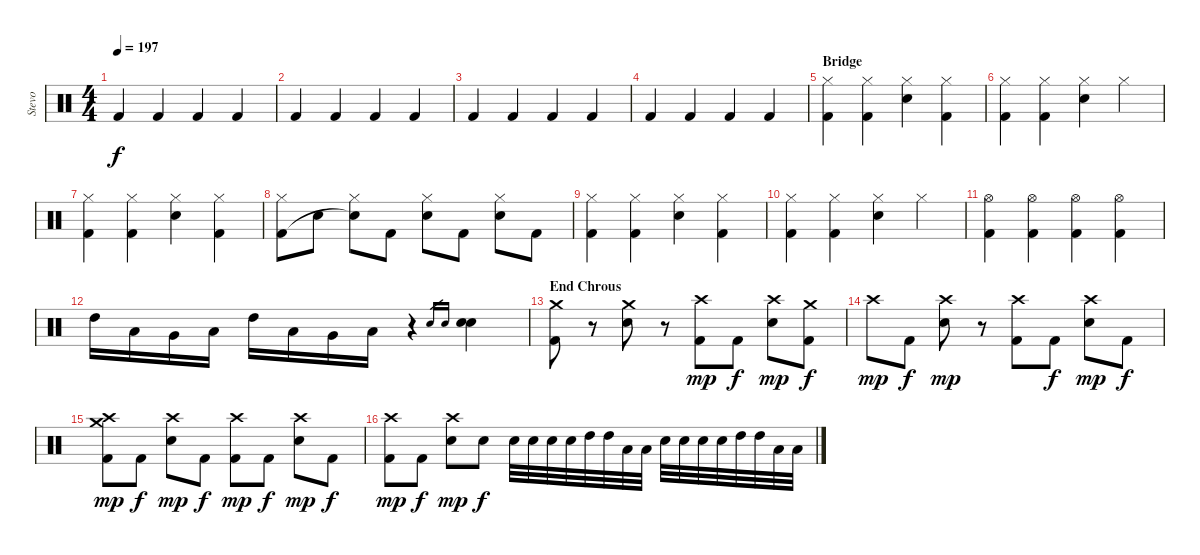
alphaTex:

\track ("Stevo" "Stevo") {instrument percussion}
\staff {score}
\articulation defaults
\ts (4 4)
\tempo 197
\clef neutral
\ks c "Kick (hit) 2".4{dy f} "Kick (hit) 2".4 "Kick (hit) 2".4 "Kick (hit) 2".4
|
"Kick (hit) 2".4 "Kick (hit) 2".4 "Kick (hit) 2".4 "Kick (hit) 2".4 |
"Kick (hit) 2".4 "Kick (hit) 2".4 "Kick (hit) 2".4 "Kick (hit) 2".4 |
"Kick (hit) 2".4 "Kick (hit) 2".4 "Kick (hit) 2".4 "Kick (hit) 2".4 |
\section ("" "Bridge")
("Hi-Hat (closed)" "Kick (hit) 2").4 ("Hi-Hat (closed)" "Kick (hit) 2").4 ("Hi-Hat (closed)" "Electric Snare (hit)").4 ("Hi-Hat (closed)" "Kick (hit) 2").4 |
("Hi-Hat (closed)" "Kick (hit) 2").4 ("Hi-Hat (closed)" "Kick (hit) 2").4 ("Hi-Hat (closed)" "Electric Snare (hit)").4 "Hi-Hat (closed)".4 |
("Hi-Hat (closed)" "Kick (hit) 2").4 ("Hi-Hat (closed)" "Kick (hit) 2").4 ("Hi-Hat (closed)" "Electric Snare (hit)").4 ("Hi-Hat (closed)" "Kick (hit) 2").4 |
("Hi-Hat (closed)" "Kick (hit) 2").8 "Electric Snare (hit)".8 ("Hi-Hat (closed)" "Electric Snare (hit)"{t}).8 "Kick (hit) 2".8 ("Hi-Hat (closed)" "Electric Snare (hit)").8 "Kick (hit) 2".8 ("Hi-Hat (closed)" "Electric Snare (hit)").8 "Kick (hit) 2".8 |
("Hi-Hat (closed)" "Kick (hit) 2").4 ("Hi-Hat (closed)" "Kick (hit) 2").4 ("Hi-Hat (closed)" "Electric Snare (hit)").4 ("Hi-Hat (closed)" "Kick (hit) 2").4 |
("Hi-Hat (closed)" "Kick (hit) 2").4 ("Hi-Hat (closed)" "Kick (hit) 2").4 ("Hi-Hat (closed)" "Electric Snare (hit)").4 "Hi-Hat (closed)".4 |
("Hi-Hat (open)" "Kick (hit) 2").4 ("Hi-Hat (open)" "Kick (hit) 2").4 ("Hi-Hat (open)" "Kick (hit) 2").4 ("Hi-Hat (open)" "Kick (hit) 2").4 |
"High Tom (hit)".16 "Low Tom (hit)".16 "Very Low Tom (hit)".16 "Low Tom (hit)".16 "High Tom (hit)".16 "Low Tom (hit)".16 "Very Low Tom (hit)".16 "Low Tom (hit)".16 r.4 "Electric Snare (hit)".16{gr} "Electric Snare (hit)".16{gr} ("Electric Snare (hit)" "Electric Snare (hit)").4 |
\section ("" "End Chrous")
("Crash medium (hit)" "Kick (hit) 2").8 r.8 ("Crash medium (hit)" "Electric Snare (hit)").8 r.8 ("Crash high (hit)" "Kick (hit) 2").8{dy mp} "Kick (hit) 2".8{dy f} ("Crash high (hit)" "Electric Snare (hit)").8{dy mp} ("Crash medium (hit)" "Kick (hit) 2").8{dy f} |
"Crash high (hit)".8{dy mp} "Kick (hit) 2".8{dy f} ("Crash high (hit)" "Electric Snare (hit)").8{dy mp} r.8 ("Crash high (hit)" "Kick (hit) 2").8 "Kick (hit) 2".8{dy f} ("Crash high (hit)" "Electric Snare (hit)").8{dy mp} "Kick (hit) 2".8{dy f} |
("Crash medium (hit)" "Crash high (hit)" "Kick (hit) 2").8{dy mp} "Kick (hit) 2".8{dy f} ("Crash high (hit)" "Electric Snare (hit)").8{dy mp} "Kick (hit) 2".8{dy f} ("Crash high (hit)" "Kick (hit) 2").8{dy mp} "Kick (hit) 2".8{dy f} ("Crash high (hit)" "Electric Snare (hit)").8{dy mp} "Kick (hit) 2".8{dy f} |
("Crash high (hit)" "Kick (hit) 2").8{dy mp} "Kick (hit) 2".8{dy f} ("Crash high (hit)" "Electric Snare (hit)").8{dy mp} "Electric Snare (hit)".8{dy f} "Electric Snare (hit)".32 "Electric Snare (hit)".32 "Electric Snare (hit)".32 "Electric Snare (hit)".32 "High Tom (hit)".32 "High Tom (hit)".32 "Low Tom (hit)".32 "Low Tom (hit)".32 "Electric Snare (hit)".32 "Electric Snare (hit)".32 "Electric Snare (hit)".32 "Electric Snare (hit)".32 "High Tom (hit)".32 "High Tom (hit)".32 "Low Tom (hit)".32 "Low Tom (hit)".32
